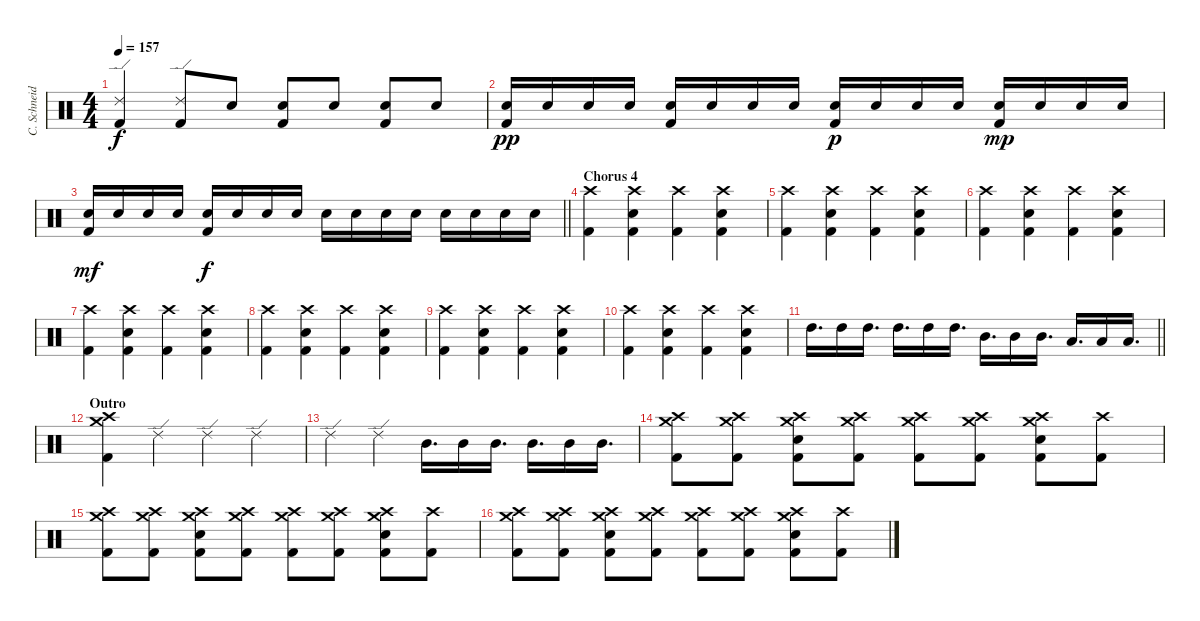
\track ("C. Schneider" "C. Schneid") {instrument percussion}
\staff {score}
\articulation defaults
\ts (4 4)
\tempo 157
\clef neutral
\ks c
("Kick (hit) 2" "Ride (edge) 2").4{dy f} ("Kick (hit) 2" "Ride (edge) 2").8 "Electric Snare (hit)".8 ("Kick (hit) 2" "Electric Snare (hit)").8 "Electric Snare (hit)".8 ("Kick (hit) 2" "Electric Snare (hit)").8 "Electric Snare (hit)".8 |
("Kick (hit) 2" "Electric Snare (hit)").16{dy pp} "Electric Snare (hit)".16 "Electric Snare (hit)".16 "Electric Snare (hit)".16 ("Kick (hit) 2" "Electric Snare (hit)").16 "Electric Snare (hit)".16 "Electric Snare (hit)".16 "Electric Snare (hit)".16 ("Kick (hit) 2" "Electric Snare (hit)").16{dy p} "Electric Snare (hit)".16 "Electric Snare (hit)".16 "Electric Snare (hit)".16 ("Kick (hit) 2" "Electric Snare (hit)").16{dy mp} "Electric Snare (hit)".16 "Electric Snare (hit)".16 "Electric Snare (hit)".16 |
\barLineRight lightlight
("Kick (hit) 2" "Electric Snare (hit)").16{dy mf} "Electric Snare (hit)".16 "Electric Snare (hit)".16 "Electric Snare (hit)".16 ("Kick (hit) 2" "Electric Snare (hit)").16{dy f} "Electric Snare (hit)".16 "Electric Snare (hit)".16 "Electric Snare (hit)".16 "Electric Snare (hit)".16 "Electric Snare (hit)".16 "Electric Snare (hit)".16 "Electric Snare (hit)".16 "Electric Snare (hit)".16 "Electric Snare (hit)".16 "Electric Snare (hit)".16 "Electric Snare (hit)".16 |
\section ("" "Chorus 4")
("Kick (hit) 2" "Crash high (hit)").4 ("Kick (hit) 2" "Electric Snare (hit)" "Crash high (hit)").4 ("Kick (hit) 2" "Crash high (hit)").4 ("Kick (hit) 2" "Electric Snare (hit)" "Crash high (hit)").4 |
("Kick (hit) 2" "Crash high (hit)").4 ("Kick (hit) 2" "Electric Snare (hit)" "Crash high (hit)").4 ("Kick (hit) 2" "Crash high (hit)").4 ("Kick (hit) 2" "Electric Snare (hit)" "Crash high (hit)").4 |
("Kick (hit) 2" "Crash high (hit)").4 ("Kick (hit) 2" "Electric Snare (hit)" "Crash high (hit)").4 ("Kick (hit) 2" "Crash high (hit)").4 ("Kick (hit) 2" "Electric Snare (hit)" "Crash high (hit)").4 |
("Kick (hit) 2" "Crash high (hit)").4 ("Kick (hit) 2" "Electric Snare (hit)" "Crash high (hit)").4 ("Kick (hit) 2" "Crash high (hit)").4 ("Kick (hit) 2" "Electric Snare (hit)" "Crash high (hit)").4 |
("Kick (hit) 2" "Crash high (hit)").4 ("Kick (hit) 2" "Electric Snare (hit)" "Crash high (hit)").4 ("Kick (hit) 2" "Crash high (hit)").4 ("Kick (hit) 2" "Electric Snare (hit)" "Crash high (hit)").4 |
("Kick (hit) 2" "Crash high (hit)").4 ("Kick (hit) 2" "Electric Snare (hit)" "Crash high (hit)").4 ("Kick (hit) 2" "Crash high (hit)").4 ("Kick (hit) 2" "Electric Snare (hit)" "Crash high (hit)").4 |
("Kick (hit) 2" "Crash high (hit)").4 ("Kick (hit) 2" "Electric Snare (hit)" "Crash high (hit)").4 ("Kick (hit) 2" "Crash high (hit)").4 ("Kick (hit) 2" "Electric Snare (hit)" "Crash high (hit)").4 |
\barLineRight lightlight "High Tom (hit)".16{d} "High Tom (hit)".16 "High Tom (hit)".16{d} "High Tom (hit)".16{d} "High Tom (hit)".16 "High Tom (hit)".16{d} "Mid Tom (hit)".16{d} "Mid Tom (hit)".16 "Mid Tom (hit)".16{d} "Low Tom (hit)".16{d} "Low Tom (hit)".16 "Low Tom (hit)".16{d}
|
\section ("" "Outro")
("Kick (hit) 2" "Crash high (hit)" "Crash medium (hit)").4 "Ride (edge) 2".4 "Ride (edge) 2".4 "Ride (edge) 2".4 |
"Ride (edge) 2".4 "Ride (edge) 2".4 "Mid Tom (hit)".16{d} "Mid Tom (hit)".16 "Mid Tom (hit)".16{d} "Mid Tom (hit)".16{d} "Mid Tom (hit)".16 "Mid Tom (hit)".16{d} |
("Kick (hit) 2" "Crash high (hit)" "Crash medium (hit)").8 ("Kick (hit) 2" "Crash high (hit)" "Crash medium (hit)").8 ("Kick (hit) 2" "Electric Snare (hit)" "Crash high (hit)" "Crash medium (hit)").8 ("Kick (hit) 2" "Crash high (hit)" "Crash medium (hit)").8 ("Kick (hit) 2" "Crash high (hit)" "Crash medium (hit)").8 ("Kick (hit) 2" "Crash high (hit)" "Crash medium (hit)").8 ("Kick (hit) 2" "Electric Snare (hit)" "Crash high (hit)" "Crash medium (hit)").8 ("Kick (hit) 2" "Crash high (hit)").8 |
("Kick (hit) 2" "Crash high (hit)" "Crash medium (hit)").8 ("Kick (hit) 2" "Crash high (hit)" "Crash medium (hit)").8 ("Kick (hit) 2" "Electric Snare (hit)" "Crash high (hit)" "Crash medium (hit)").8 ("Kick (hit) 2" "Crash high (hit)" "Crash medium (hit)").8 ("Kick (hit) 2" "Crash high (hit)" "Crash medium (hit)").8 ("Kick (hit) 2" "Crash high (hit)" "Crash medium (hit)").8 ("Kick (hit) 2" "Electric Snare (hit)" "Crash high (hit)" "Crash medium (hit)").8 ("Kick (hit) 2" "Crash high (hit)").8 |
("Kick (hit) 2" "Crash high (hit)" "Crash medium (hit)").8 ("Kick (hit) 2" "Crash high (hit)" "Crash medium (hit)").8 ("Kick (hit) 2" "Electric Snare (hit)" "Crash high (hit)" "Crash medium (hit)").8 ("Kick (hit) 2" "Crash high (hit)" "Crash medium (hit)").8 ("Kick (hit) 2" "Crash high (hit)" "Crash medium (hit)").8 ("Kick (hit) 2" "Crash high (hit)" "Crash medium (hit)").8 ("Kick (hit) 2" "Electric Snare (hit)" "Crash high (hit)" "Crash medium (hit)").8 ("Kick (hit) 2" "Crash high (hit)").8
